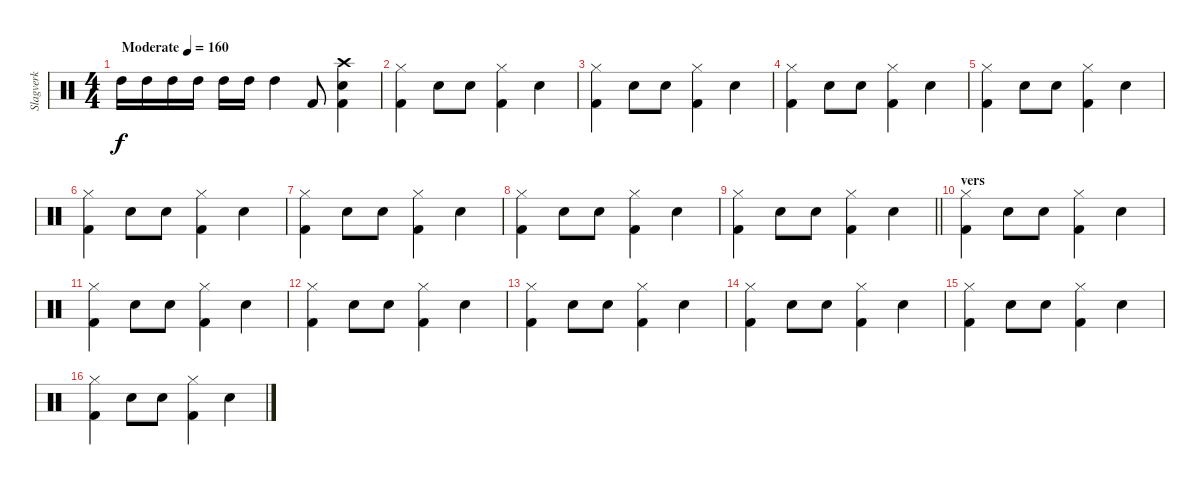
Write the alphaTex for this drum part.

\track ("Slagverk" "Slagverk") {instrument percussion}
\staff {score}
\articulation defaults
\ts (4 4)
\tempo (160 "Moderate")
\clef neutral
\ks c "High Tom (hit)".16{dy f} "High Tom (hit)".16 "High Tom (hit)".16 "High Tom (hit)".16 "High Tom (hit)".16 "High Tom (hit)".16 "High Tom (hit)".4 "Kick (hit) 2".8
("Snare (hit) 2" "Crash high (hit)" "Kick (hit) 2").4 |
("Kick (hit) 2" "Hi-Hat (closed)").4 "Snare (hit) 2".8 "Snare (hit) 2".8 ("Kick (hit) 2" "Hi-Hat (closed)").4 "Snare (hit) 2".4 |
("Kick (hit) 2" "Hi-Hat (closed)").4 "Snare (hit) 2".8 "Snare (hit) 2".8 ("Kick (hit) 2" "Hi-Hat (closed)").4 "Snare (hit) 2".4 |
("Kick (hit) 2" "Hi-Hat (closed)").4 "Snare (hit) 2".8 "Snare (hit) 2".8 ("Kick (hit) 2" "Hi-Hat (closed)").4 "Snare (hit) 2".4 |
("Kick (hit) 2" "Hi-Hat (closed)").4 "Snare (hit) 2".8 "Snare (hit) 2".8 ("Kick (hit) 2" "Hi-Hat (closed)").4 "Snare (hit) 2".4 |
("Kick (hit) 2" "Hi-Hat (closed)").4 "Snare (hit) 2".8 "Snare (hit) 2".8 ("Kick (hit) 2" "Hi-Hat (closed)").4 "Snare (hit) 2".4 |
("Kick (hit) 2" "Hi-Hat (closed)").4 "Snare (hit) 2".8 "Snare (hit) 2".8 ("Kick (hit) 2" "Hi-Hat (closed)").4 "Snare (hit) 2".4 |
("Kick (hit) 2" "Hi-Hat (closed)").4 "Snare (hit) 2".8 "Snare (hit) 2".8 ("Kick (hit) 2" "Hi-Hat (closed)").4 "Snare (hit) 2".4 |
\barLineRight lightlight
("Kick (hit) 2" "Hi-Hat (closed)").4 "Snare (hit) 2".8 "Snare (hit) 2".8 ("Kick (hit) 2" "Hi-Hat (closed)").4 "Snare (hit) 2".4 |
\section ("" "vers")
("Kick (hit) 2" "Hi-Hat (closed)").4 "Snare (hit) 2".8 "Snare (hit) 2".8 ("Kick (hit) 2" "Hi-Hat (closed)").4 "Snare (hit) 2".4 |
("Kick (hit) 2" "Hi-Hat (closed)").4 "Snare (hit) 2".8 "Snare (hit) 2".8 ("Kick (hit) 2" "Hi-Hat (closed)").4 "Snare (hit) 2".4 |
("Kick (hit) 2" "Hi-Hat (closed)").4 "Snare (hit) 2".8 "Snare (hit) 2".8 ("Kick (hit) 2" "Hi-Hat (closed)").4 "Snare (hit) 2".4 |
("Kick (hit) 2" "Hi-Hat (closed)").4 "Snare (hit) 2".8 "Snare (hit) 2".8 ("Kick (hit) 2" "Hi-Hat (closed)").4 "Snare (hit) 2".4 |
("Kick (hit) 2" "Hi-Hat (closed)").4 "Snare (hit) 2".8 "Snare (hit) 2".8 ("Kick (hit) 2" "Hi-Hat (closed)").4 "Snare (hit) 2".4 |
("Kick (hit) 2" "Hi-Hat (closed)").4 "Snare (hit) 2".8 "Snare (hit) 2".8 ("Kick (hit) 2" "Hi-Hat (closed)").4 "Snare (hit) 2".4 |
("Kick (hit) 2" "Hi-Hat (closed)").4 "Snare (hit) 2".8 "Snare (hit) 2".8 ("Kick (hit) 2" "Hi-Hat (closed)").4 "Snare (hit) 2".4
